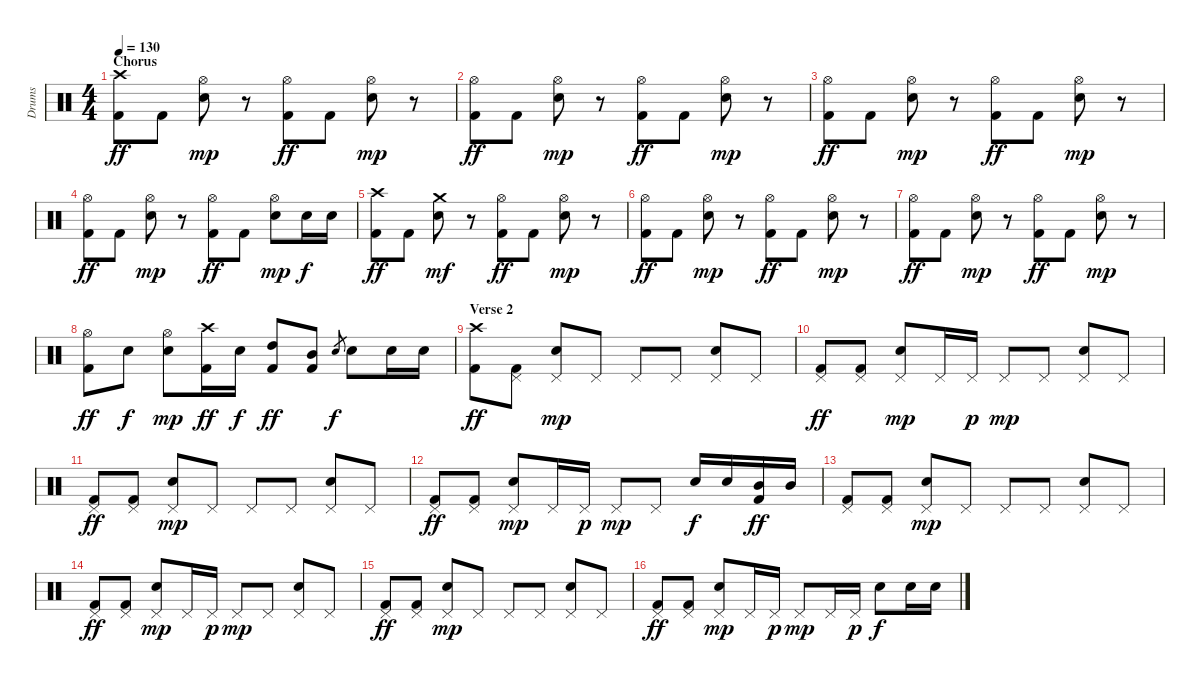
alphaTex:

\track ("Drums" "Drums") {instrument percussion}
\staff {score}
\articulation defaults
\ts (4 4)
\section ("" "Chorus")
\tempo 130
\clef neutral
\ks c
("Crash high (hit)" "Kick (hit) 2").8{dy ff} "Kick (hit) 2".8 ("Hi-Hat (open)" "Electric Snare (hit)").8{dy mp} r.8 ("Hi-Hat (open)" "Kick (hit) 2").8{dy ff} "Kick (hit) 2".8 ("Hi-Hat (open)" "Electric Snare (hit)").8{dy mp} r.8 |
("Hi-Hat (open)" "Kick (hit) 2").8{dy ff} "Kick (hit) 2".8 ("Hi-Hat (open)" "Electric Snare (hit)").8{dy mp} r.8 ("Hi-Hat (open)" "Kick (hit) 2").8{dy ff} "Kick (hit) 2".8 ("Hi-Hat (open)" "Electric Snare (hit)").8{dy mp} r.8 |
("Hi-Hat (open)" "Kick (hit) 2").8{dy ff} "Kick (hit) 2".8 ("Hi-Hat (open)" "Electric Snare (hit)").8{dy mp} r.8 ("Hi-Hat (open)" "Kick (hit) 2").8{dy ff} "Kick (hit) 2".8 ("Hi-Hat (open)" "Electric Snare (hit)").8{dy mp} r.8 |
("Hi-Hat (open)" "Kick (hit) 2").8{dy ff} "Kick (hit) 2".8 ("Hi-Hat (open)" "Electric Snare (hit)").8{dy mp} r.8 ("Hi-Hat (open)" "Kick (hit) 2").8{dy ff} "Kick (hit) 2".8 ("Hi-Hat (open)" "Electric Snare (hit)").8{dy mp} "Electric Snare (hit)".16{dy f} "Electric Snare (hit)".16 |
("Crash high (hit)" "Kick (hit) 2").8{dy ff} "Kick (hit) 2".8 ("Crash medium (hit)" "Electric Snare (hit)").8{dy mf} r.8 ("Hi-Hat (open)" "Kick (hit) 2").8{dy ff} "Kick (hit) 2".8 ("Hi-Hat (open)" "Electric Snare (hit)").8{dy mp} r.8 |
("Hi-Hat (open)" "Kick (hit) 2").8{dy ff} "Kick (hit) 2".8 ("Hi-Hat (open)" "Electric Snare (hit)").8{dy mp} r.8 ("Hi-Hat (open)" "Kick (hit) 2").8{dy ff} "Kick (hit) 2".8 ("Hi-Hat (open)" "Electric Snare (hit)").8{dy mp} r.8 |
("Hi-Hat (open)" "Kick (hit) 2").8{dy ff} "Kick (hit) 2".8 ("Hi-Hat (open)" "Electric Snare (hit)").8{dy mp} r.8 ("Hi-Hat (open)" "Kick (hit) 2").8{dy ff} "Kick (hit) 2".8 ("Hi-Hat (open)" "Electric Snare (hit)").8{dy mp} r.8 |
("Hi-Hat (open)" "Kick (hit) 2").8{dy ff} "Electric Snare (hit)".8{dy f} ("Hi-Hat (open)" "Electric Snare (hit)").8{dy mp} ("Crash high (hit)" "Kick (hit) 2").16{dy ff} "Electric Snare (hit)".16{dy f} ("High Tom (hit)" "Kick (hit) 2").8{dy ff} ("Mid Tom (hit)" "Kick (hit) 2").8 "Electric Snare (hit)".8{gr dy f} "Electric Snare (hit)".8 "Electric Snare (hit)".16 "Electric Snare (hit)".16 |
\section ("" "Verse 2")
("Crash high (hit)" "Kick (hit) 2").8{dy ff} ("Pedal Hi-Hat (hit)" "Kick (hit) 2").8 ("Pedal Hi-Hat (hit)" "Electric Snare (hit)").8{dy mp} "Pedal Hi-Hat (hit)".8 "Pedal Hi-Hat (hit)".8 "Pedal Hi-Hat (hit)".8 ("Pedal Hi-Hat (hit)" "Electric Snare (hit)").8 "Pedal Hi-Hat (hit)".8 |
("Pedal Hi-Hat (hit)" "Kick (hit) 2").8{dy ff} ("Pedal Hi-Hat (hit)" "Kick (hit) 2").8 ("Pedal Hi-Hat (hit)" "Electric Snare (hit)").8{dy mp} "Pedal Hi-Hat (hit)".16 "Pedal Hi-Hat (hit)".16{dy p} "Pedal Hi-Hat (hit)".8{dy mp} "Pedal Hi-Hat (hit)".8 ("Pedal Hi-Hat (hit)" "Electric Snare (hit)").8 "Pedal Hi-Hat (hit)".8 |
("Pedal Hi-Hat (hit)" "Kick (hit) 2").8{dy ff} ("Pedal Hi-Hat (hit)" "Kick (hit) 2").8 ("Pedal Hi-Hat (hit)" "Electric Snare (hit)").8{dy mp} "Pedal Hi-Hat (hit)".8 "Pedal Hi-Hat (hit)".8 "Pedal Hi-Hat (hit)".8 ("Pedal Hi-Hat (hit)" "Electric Snare (hit)").8 "Pedal Hi-Hat (hit)".8 |
("Pedal Hi-Hat (hit)" "Kick (hit) 2").8{dy ff} ("Pedal Hi-Hat (hit)" "Kick (hit) 2").8 ("Pedal Hi-Hat (hit)" "Electric Snare (hit)").8{dy mp} "Pedal Hi-Hat (hit)".16 "Pedal Hi-Hat (hit)".16{dy p} "Pedal Hi-Hat (hit)".8{dy mp} "Pedal Hi-Hat (hit)".8 "Electric Snare (hit)".16{dy f} "Electric Snare (hit)".16 ("Mid Tom (hit)" "Kick (hit) 2").16{dy ff} "Mid Tom (hit)".16 |
("Pedal Hi-Hat (hit)" "Kick (hit) 2").8 ("Pedal Hi-Hat (hit)" "Kick (hit) 2").8 ("Pedal Hi-Hat (hit)" "Electric Snare (hit)").8{dy mp} "Pedal Hi-Hat (hit)".8 "Pedal Hi-Hat (hit)".8 "Pedal Hi-Hat (hit)".8 ("Pedal Hi-Hat (hit)" "Electric Snare (hit)").8 "Pedal Hi-Hat (hit)".8 |
("Pedal Hi-Hat (hit)" "Kick (hit) 2").8{dy ff} ("Pedal Hi-Hat (hit)" "Kick (hit) 2").8 ("Pedal Hi-Hat (hit)" "Electric Snare (hit)").8{dy mp} "Pedal Hi-Hat (hit)".16 "Pedal Hi-Hat (hit)".16{dy p} "Pedal Hi-Hat (hit)".8{dy mp} "Pedal Hi-Hat (hit)".8 ("Pedal Hi-Hat (hit)" "Electric Snare (hit)").8 "Pedal Hi-Hat (hit)".8 |
("Pedal Hi-Hat (hit)" "Kick (hit) 2").8{dy ff} ("Pedal Hi-Hat (hit)" "Kick (hit) 2").8 ("Pedal Hi-Hat (hit)" "Electric Snare (hit)").8{dy mp} "Pedal Hi-Hat (hit)".8 "Pedal Hi-Hat (hit)".8 "Pedal Hi-Hat (hit)".8 ("Pedal Hi-Hat (hit)" "Electric Snare (hit)").8 "Pedal Hi-Hat (hit)".8 |
("Pedal Hi-Hat (hit)" "Kick (hit) 2").8{dy ff} ("Pedal Hi-Hat (hit)" "Kick (hit) 2").8 ("Pedal Hi-Hat (hit)" "Electric Snare (hit)").8{dy mp} "Pedal Hi-Hat (hit)".16 "Pedal Hi-Hat (hit)".16{dy p} "Pedal Hi-Hat (hit)".8{dy mp} "Pedal Hi-Hat (hit)".16 "Pedal Hi-Hat (hit)".16{dy p} "Electric Snare (hit)".8{dy f} "Electric Snare (hit)".16 "Electric Snare (hit)".16
